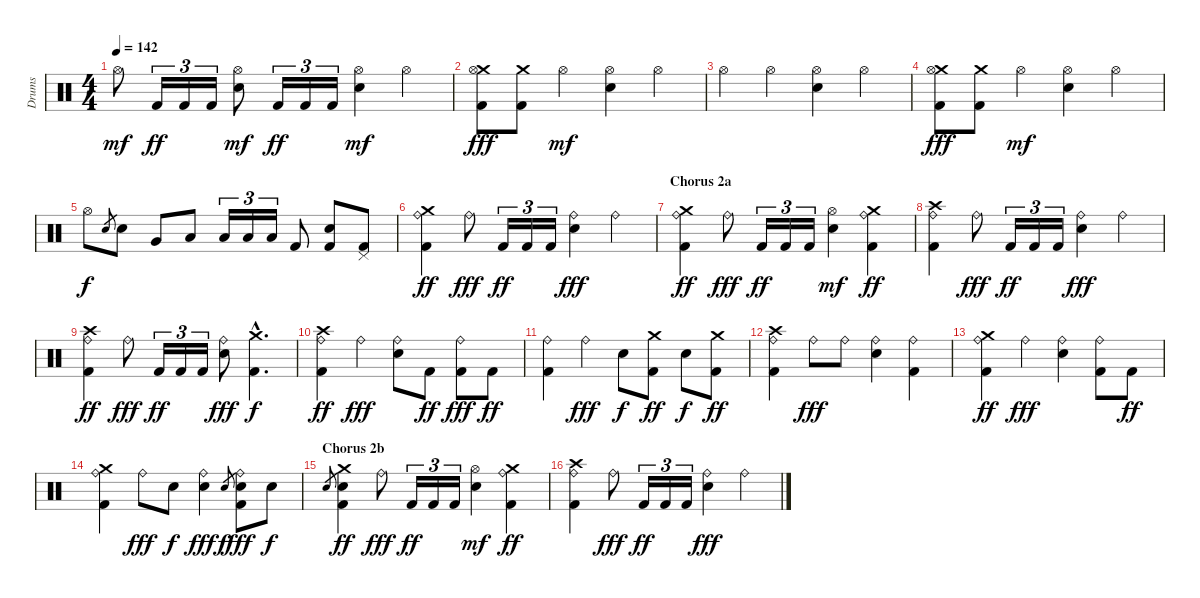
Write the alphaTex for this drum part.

\track ("Drums" "Drums") {instrument percussion}
\staff {score}
\articulation defaults
\ts (4 4)
\tempo 142
\clef neutral
\ks c "Hi-Hat (open)".8{dy mf} "Kick (hit) 2".16{tu (3 2) dy ff} "Kick (hit) 2".16{tu (3 2)} "Kick (hit) 2".16{tu (3 2)}
("Hi-Hat (open)" "Snare (hit) 2").8{dy mf} "Kick (hit) 2".16{tu (3 2) dy ff} "Kick (hit) 2".16{tu (3 2)} "Kick (hit) 2".16{tu (3 2)} ("Hi-Hat (open)" "Snare (hit) 2").4{dy mf} "Hi-Hat (open)".4 |
("Crash medium (hit)" "Hi-Hat (open)" "Kick (hit) 2").8{dy fff} ("Crash medium (hit)" "Kick (hit) 2").8 "Hi-Hat (open)".4{dy mf} ("Hi-Hat (open)" "Snare (hit) 2").4 "Hi-Hat (open)".4 |
"Hi-Hat (open)".4 "Hi-Hat (open)".4 ("Hi-Hat (open)" "Snare (hit) 2").4 "Hi-Hat (open)".4 |
("Crash medium (hit)" "Hi-Hat (open)" "Kick (hit) 2").8{dy fff} ("Crash medium (hit)" "Kick (hit) 2").8 "Hi-Hat (open)".4{dy mf} ("Hi-Hat (open)" "Snare (hit) 2").4 "Hi-Hat (open)".4 |
"Hi-Hat (open)".8{dy f} "Snare (hit) 2".8{gr} "Snare (hit) 2".8 "Very Low Tom (hit)".8 "Low Floor Tom (hit)".8 "Low Floor Tom (hit)".16{tu (3 2)} "Low Floor Tom (hit)".16{tu (3 2)} "Low Floor Tom (hit)".16{tu (3 2)} "Kick (hit) 2".8 ("Snare (hit) 2" "Kick (hit) 2").8 ("Pedal Hi-Hat (hit)" "Kick (hit) 2").8 |
("Crash medium (hit)" "Ride (bell)" "Kick (hit) 2").4{dy ff} "Ride (bell)".8{dy fff} "Kick (hit) 2".16{tu (3 2) dy ff} "Kick (hit) 2".16{tu (3 2)} "Kick (hit) 2".16{tu (3 2)} ("Ride (bell)" "Snare (hit) 2").4{dy fff} "Ride (bell)".4 |
\section ("" "Chorus 2a")
("Crash medium (hit)" "Ride (bell)" "Kick (hit) 2").4{dy ff} "Ride (bell)".8{dy fff} "Kick (hit) 2".16{tu (3 2) dy ff} "Kick (hit) 2".16{tu (3 2)} "Kick (hit) 2".16{tu (3 2)} ("Hi-Hat (open)" "Snare (hit) 2").4{dy mf} ("Crash medium (hit)" "Ride (bell)" "Kick (hit) 2").4{dy ff} |
("Crash high (hit)" "Ride (bell)" "Kick (hit) 2").4 "Ride (bell)".8{dy fff} "Kick (hit) 2".16{tu (3 2) dy ff} "Kick (hit) 2".16{tu (3 2)} "Kick (hit) 2".16{tu (3 2)} ("Ride (bell)" "Snare (hit) 2").4{dy fff} "Ride (bell)".4 |
("Crash high (hit)" "Ride (bell)" "Kick (hit) 2").4{dy ff} "Ride (bell)".8{dy fff} "Kick (hit) 2".16{tu (3 2) dy ff} "Kick (hit) 2".16{tu (3 2)} "Kick (hit) 2".16{tu (3 2)} ("Ride (bell)" "Snare (hit) 2").8{dy fff} ("Crash medium (hit)"{hac} "Kick (hit) 2"{hac}).4{d dy f} |
("Crash high (hit)" "Ride (bell)" "Kick (hit) 2").4{dy ff} "Ride (bell)".4{dy fff} ("Ride (bell)" "Snare (hit) 2").8 "Kick (hit) 2".8{dy ff} ("Ride (bell)" "Kick (hit) 2").8{dy fff} "Kick (hit) 2".8{dy ff} |
("Ride (bell)" "Kick (hit) 2").4 "Ride (bell)".4{dy fff} "Snare (hit) 2".8{dy f} ("Crash medium (hit)" "Kick (hit) 2").8{dy ff} "Snare (hit) 2".8{dy f} ("Crash medium (hit)" "Kick (hit) 2").8{dy ff} |
("Crash high (hit)" "Ride (bell)" "Kick (hit) 2").4 "Ride (bell)".8{dy fff} "Ride (bell)".8 ("Ride (bell)" "Snare (hit) 2").4 ("Ride (bell)" "Kick (hit) 2").4 |
("Crash medium (hit)" "Ride (bell)" "Kick (hit) 2").4{dy ff} "Ride (bell)".4{dy fff} ("Ride (bell)" "Snare (hit) 2").4 ("Ride (bell)" "Kick (hit) 2").8 "Kick (hit) 2".8{dy ff} |
("Crash medium (hit)" "Ride (bell)" "Kick (hit) 2").4 "Ride (bell)".8{dy fff} "Snare (hit) 2".8{dy f} ("Ride (bell)" "Snare (hit) 2").4{dy fff} "Snare (hit) 2".8{gr dy f} ("Ride (bell)" "Snare (hit) 2" "Kick (hit) 2").8{dy fff} "Snare (hit) 2".8{dy f} |
\section ("" "Chorus 2b")
"Snare (hit) 2".8{gr} ("Crash medium (hit)" "Snare (hit) 2" "Kick (hit) 2").4{dy ff} "Ride (bell)".8{dy fff} "Kick (hit) 2".16{tu (3 2) dy ff} "Kick (hit) 2".16{tu (3 2)} "Kick (hit) 2".16{tu (3 2)} ("Hi-Hat (open)" "Snare (hit) 2").4{dy mf} ("Crash medium (hit)" "Ride (bell)" "Kick (hit) 2").4{dy ff} |
("Crash high (hit)" "Ride (bell)" "Kick (hit) 2").4 "Ride (bell)".8{dy fff} "Kick (hit) 2".16{tu (3 2) dy ff} "Kick (hit) 2".16{tu (3 2)} "Kick (hit) 2".16{tu (3 2)} ("Ride (bell)" "Snare (hit) 2").4{dy fff} "Ride (bell)".4
